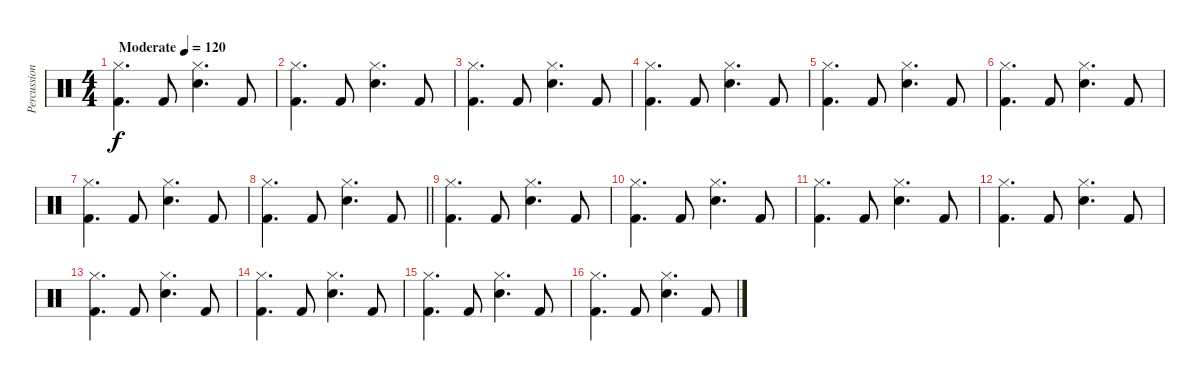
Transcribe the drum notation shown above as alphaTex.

\track ("Percussions" "Percussion") {instrument percussion}
\staff {score}
\articulation defaults
\ts (4 4)
\tempo (120 "Moderate")
\clef neutral
\ks c
("Hi-Hat (closed)" "Kick (hit) 2").4{d dy f} "Kick (hit) 2".8 ("Hi-Hat (closed)" "Snare (hit) 2").4{d} "Kick (hit) 2".8 |
("Hi-Hat (closed)" "Kick (hit) 2").4{d} "Kick (hit) 2".8 ("Hi-Hat (closed)" "Snare (hit) 2").4{d} "Kick (hit) 2".8 |
("Hi-Hat (closed)" "Kick (hit) 2").4{d} "Kick (hit) 2".8 ("Hi-Hat (closed)" "Snare (hit) 2").4{d} "Kick (hit) 2".8 |
("Hi-Hat (closed)" "Kick (hit) 2").4{d} "Kick (hit) 2".8 ("Hi-Hat (closed)" "Snare (hit) 2").4{d} "Kick (hit) 2".8 |
("Hi-Hat (closed)" "Kick (hit) 2").4{d} "Kick (hit) 2".8 ("Hi-Hat (closed)" "Snare (hit) 2").4{d} "Kick (hit) 2".8 |
("Hi-Hat (closed)" "Kick (hit) 2").4{d} "Kick (hit) 2".8 ("Hi-Hat (closed)" "Snare (hit) 2").4{d} "Kick (hit) 2".8 |
("Hi-Hat (closed)" "Kick (hit) 2").4{d} "Kick (hit) 2".8 ("Hi-Hat (closed)" "Snare (hit) 2").4{d} "Kick (hit) 2".8 |
\barLineRight lightlight
("Hi-Hat (closed)" "Kick (hit) 2").4{d} "Kick (hit) 2".8 ("Hi-Hat (closed)" "Snare (hit) 2").4{d} "Kick (hit) 2".8 |
("Hi-Hat (closed)" "Kick (hit) 2").4{d} "Kick (hit) 2".8 ("Hi-Hat (closed)" "Snare (hit) 2").4{d} "Kick (hit) 2".8 |
("Hi-Hat (closed)" "Kick (hit) 2").4{d} "Kick (hit) 2".8 ("Hi-Hat (closed)" "Snare (hit) 2").4{d} "Kick (hit) 2".8 |
("Hi-Hat (closed)" "Kick (hit) 2").4{d} "Kick (hit) 2".8 ("Hi-Hat (closed)" "Snare (hit) 2").4{d} "Kick (hit) 2".8 |
("Hi-Hat (closed)" "Kick (hit) 2").4{d} "Kick (hit) 2".8 ("Hi-Hat (closed)" "Snare (hit) 2").4{d} "Kick (hit) 2".8 |
("Hi-Hat (closed)" "Kick (hit) 2").4{d} "Kick (hit) 2".8 ("Hi-Hat (closed)" "Snare (hit) 2").4{d} "Kick (hit) 2".8 |
("Hi-Hat (closed)" "Kick (hit) 2").4{d} "Kick (hit) 2".8 ("Hi-Hat (closed)" "Snare (hit) 2").4{d} "Kick (hit) 2".8 |
("Hi-Hat (closed)" "Kick (hit) 2").4{d} "Kick (hit) 2".8 ("Hi-Hat (closed)" "Snare (hit) 2").4{d} "Kick (hit) 2".8 |
("Hi-Hat (closed)" "Kick (hit) 2").4{d} "Kick (hit) 2".8 ("Hi-Hat (closed)" "Snare (hit) 2").4{d} "Kick (hit) 2".8
